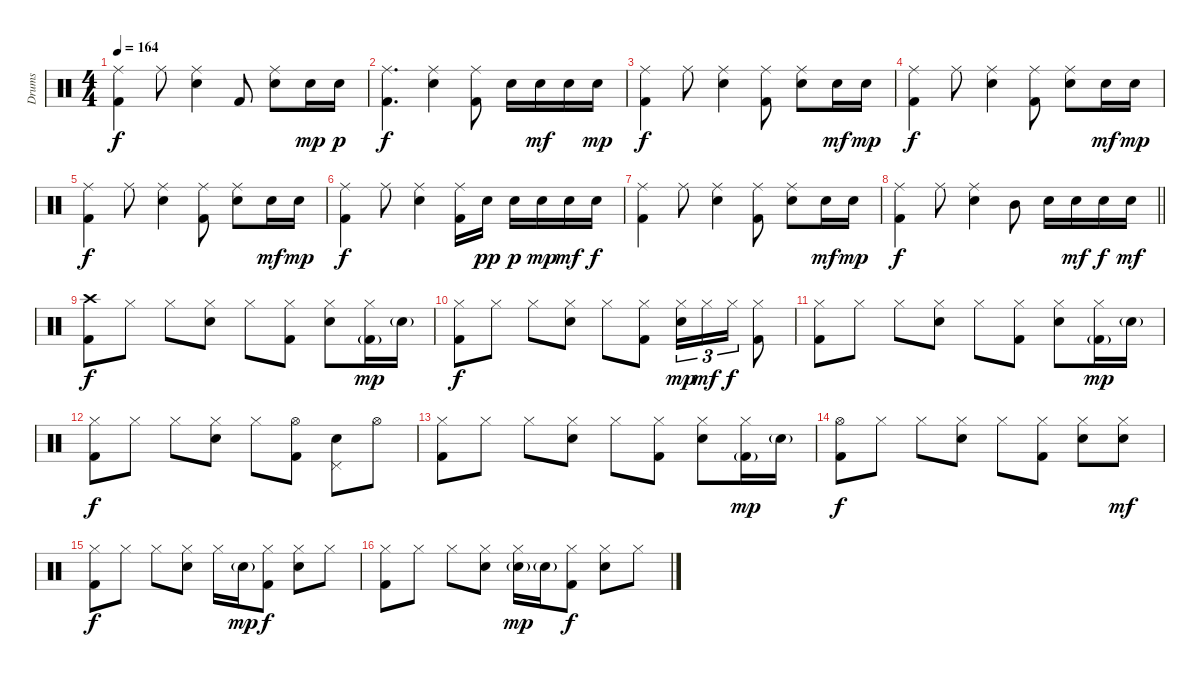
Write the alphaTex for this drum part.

\track ("Drums" "Drums") {instrument percussion}
\staff {score}
\articulation defaults
\ts (4 4)
\tempo 164
\clef neutral
\ks c
("Ride (middle)" "Kick (hit) 2").4{dy f} "Ride (middle)".8 ("Ride (middle)" "Electric Snare (hit)").4 "Kick (hit) 2".8 ("Ride (middle)" "Electric Snare (hit)").8 "Electric Snare (hit)".16{dy mp} "Electric Snare (hit)".16{dy p} |
("Ride (middle)" "Kick (hit) 2").4{d dy f} ("Ride (middle)" "Electric Snare (hit)").4 ("Ride (middle)" "Kick (hit) 2").8 "Electric Snare (hit)".16 "Electric Snare (hit)".16{dy mf} "Electric Snare (hit)".16 "Electric Snare (hit)".16{dy mp} |
("Ride (middle)" "Kick (hit) 2").4{dy f} "Ride (middle)".8 ("Ride (middle)" "Electric Snare (hit)").4 ("Ride (middle)" "Kick (hit) 2").8 ("Ride (middle)" "Electric Snare (hit)").8 "Electric Snare (hit)".16{dy mf} "Electric Snare (hit)".16{dy mp} |
("Ride (middle)" "Kick (hit) 2").4{dy f} "Ride (middle)".8 ("Ride (middle)" "Electric Snare (hit)").4 ("Ride (middle)" "Kick (hit) 2").8 ("Ride (middle)" "Electric Snare (hit)").8 "Electric Snare (hit)".16{dy mf} "Electric Snare (hit)".16{dy mp} |
("Ride (middle)" "Kick (hit) 2").4{dy f} "Ride (middle)".8 ("Ride (middle)" "Electric Snare (hit)").4 ("Ride (middle)" "Kick (hit) 2").8 ("Ride (middle)" "Electric Snare (hit)").8 "Electric Snare (hit)".16{dy mf} "Electric Snare (hit)".16{dy mp} |
("Ride (middle)" "Kick (hit) 2").4{dy f} "Ride (middle)".8 ("Ride (middle)" "Electric Snare (hit)").4 ("Ride (middle)" "Kick (hit) 2").16 "Electric Snare (hit)".16{dy pp} "Electric Snare (hit)".16{dy p} "Electric Snare (hit)".16{dy mp} "Electric Snare (hit)".16{dy mf} "Electric Snare (hit)".16{dy f} |
("Ride (middle)" "Kick (hit) 2").4 "Ride (middle)".8 ("Ride (middle)" "Electric Snare (hit)").4 ("Ride (middle)" "Kick (hit) 2").8 ("Ride (middle)" "Electric Snare (hit)").8 "Electric Snare (hit)".16{dy mf} "Electric Snare (hit)".16{dy mp} |
\barLineRight lightlight
("Ride (middle)" "Kick (hit) 2").4{dy f} "Ride (middle)".8 ("Ride (middle)" "Electric Snare (hit)").4 "Mid Tom (hit)".8 "Electric Snare (hit)".16 "Electric Snare (hit)".16{dy mf} "Electric Snare (hit)".16{dy f} "Electric Snare (hit)".16{dy mf} |
\section ("" "")
("Crash high (hit)" "Kick (hit) 2").8{dy f} "Hi-Hat (closed)".8 "Hi-Hat (closed)".8 ("Hi-Hat (closed)" "Electric Snare (hit)").8 "Hi-Hat (closed)".8 ("Hi-Hat (closed)" "Kick (hit) 2").8 ("Hi-Hat (closed)" "Electric Snare (hit)").8 ("Hi-Hat (closed)" "Kick (hit) 2"{g}).16{dy mp} "Electric Snare (hit)"{g}.16 |
("Hi-Hat (closed)" "Kick (hit) 2").8{dy f} "Hi-Hat (closed)".8 "Hi-Hat (closed)".8 ("Hi-Hat (closed)" "Electric Snare (hit)").8 "Hi-Hat (closed)".8 ("Hi-Hat (closed)" "Kick (hit) 2").8 ("Hi-Hat (closed)" "Electric Snare (hit)").16{tu (3 2) dy mp} "Hi-Hat (closed)".16{tu (3 2) dy mf} "Hi-Hat (closed)".16{tu (3 2) dy f} ("Hi-Hat (closed)" "Kick (hit) 2").8 |
("Hi-Hat (closed)" "Kick (hit) 2").8 "Hi-Hat (closed)".8 "Hi-Hat (closed)".8 ("Hi-Hat (closed)" "Electric Snare (hit)").8 "Hi-Hat (closed)".8 ("Hi-Hat (closed)" "Kick (hit) 2").8 ("Hi-Hat (closed)" "Electric Snare (hit)").8 ("Hi-Hat (closed)" "Kick (hit) 2"{g}).16{dy mp} "Electric Snare (hit)"{g}.16 |
("Hi-Hat (closed)" "Kick (hit) 2").8{dy f} "Hi-Hat (closed)".8 "Hi-Hat (closed)".8 ("Hi-Hat (closed)" "Electric Snare (hit)").8 "Hi-Hat (closed)".8 ("Hi-Hat (open)" "Kick (hit) 2").8 ("Pedal Hi-Hat (hit)" "Electric Snare (hit)").8 "Hi-Hat (open)".8 |
("Hi-Hat (closed)" "Kick (hit) 2").8 "Hi-Hat (closed)".8 "Hi-Hat (closed)".8 ("Hi-Hat (closed)" "Electric Snare (hit)").8 "Hi-Hat (closed)".8 ("Hi-Hat (closed)" "Kick (hit) 2").8 ("Hi-Hat (closed)" "Electric Snare (hit)").8 ("Hi-Hat (closed)" "Kick (hit) 2"{g}).16{dy mp} "Electric Snare (hit)"{g}.16 |
("Hi-Hat (open)" "Kick (hit) 2").8{dy f} "Hi-Hat (closed)".8 "Hi-Hat (closed)".8 ("Hi-Hat (closed)" "Electric Snare (hit)").8 "Hi-Hat (closed)".8 ("Hi-Hat (closed)" "Kick (hit) 2").8 ("Hi-Hat (closed)" "Electric Snare (hit)").8 ("Hi-Hat (closed)" "Electric Snare (hit)").8{dy mf} |
("Hi-Hat (closed)" "Kick (hit) 2").8{dy f} "Hi-Hat (closed)".8 "Hi-Hat (closed)".8 ("Hi-Hat (closed)" "Electric Snare (hit)").8 "Hi-Hat (closed)".16 "Electric Snare (hit)"{g}.16{dy mp} ("Hi-Hat (closed)" "Kick (hit) 2").8{dy f} ("Hi-Hat (closed)" "Electric Snare (hit)").8 "Hi-Hat (closed)".8 |
("Hi-Hat (closed)" "Kick (hit) 2").8 "Hi-Hat (closed)".8 "Hi-Hat (closed)".8 ("Hi-Hat (closed)" "Electric Snare (hit)").8 ("Hi-Hat (closed)" "Electric Snare (hit)"{g}).16{dy mp} "Electric Snare (hit)"{g}.16 ("Hi-Hat (closed)" "Kick (hit) 2").8{dy f} ("Hi-Hat (closed)" "Electric Snare (hit)").8 "Hi-Hat (closed)".8
